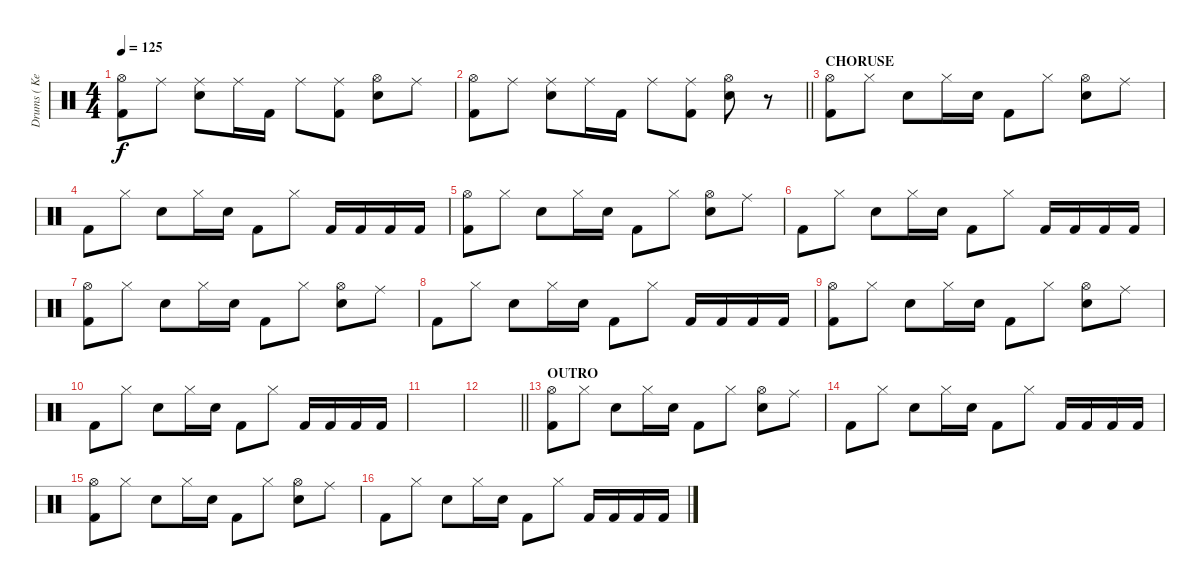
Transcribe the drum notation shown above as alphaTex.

\track ("Drums ( Ken Jay )" "Drums ( Ke") {instrument percussion}
\staff {score}
\articulation defaults
\ts (4 4)
\tempo 125
\clef neutral
\ks c
("Hi-Hat (open)" "Kick (hit) 2").8{dy f} "Ride (middle)".8 ("Ride (middle)" "Snare (hit) 2").8 "Ride (middle)".16 "Kick (hit) 2".16 "Ride (middle)".8 ("Ride (middle)" "Kick (hit) 2").8 ("Hi-Hat (open)" "Snare (hit) 2").8 "Ride (middle)".8 |
\barLineRight lightlight
("Hi-Hat (open)" "Kick (hit) 2").8 "Ride (middle)".8 ("Ride (middle)" "Snare (hit) 2").8 "Ride (middle)".16 "Kick (hit) 2".16 "Ride (middle)".8 ("Ride (middle)" "Kick (hit) 2").8 ("Hi-Hat (open)" "Snare (hit) 2").8 r.8 |
\section ("" "CHORUSE")
("Hi-Hat (open)" "Kick (hit) 2").8 "Hi-Hat (closed)".8 "Snare (hit) 2".8 "Hi-Hat (closed)".16 "Snare (hit) 2".16 "Kick (hit) 2".8 "Hi-Hat (closed)".8 ("Hi-Hat (open)" "Snare (hit) 2").8 "Ride (middle)".8 |
"Kick (hit) 2".8 "Hi-Hat (closed)".8 "Snare (hit) 2".8 "Hi-Hat (closed)".16 "Snare (hit) 2".16 "Kick (hit) 2".8 "Hi-Hat (closed)".8 "Kick (hit) 2".16 "Kick (hit) 2".16 "Kick (hit) 2".16 "Kick (hit) 2".16 |
("Hi-Hat (open)" "Kick (hit) 2").8 "Hi-Hat (closed)".8 "Snare (hit) 2".8 "Hi-Hat (closed)".16 "Snare (hit) 2".16 "Kick (hit) 2".8 "Hi-Hat (closed)".8 ("Hi-Hat (open)" "Snare (hit) 2").8 "Ride (middle)".8 |
"Kick (hit) 2".8 "Hi-Hat (closed)".8 "Snare (hit) 2".8 "Hi-Hat (closed)".16 "Snare (hit) 2".16 "Kick (hit) 2".8 "Hi-Hat (closed)".8 "Kick (hit) 2".16 "Kick (hit) 2".16 "Kick (hit) 2".16 "Kick (hit) 2".16 |
("Hi-Hat (open)" "Kick (hit) 2").8 "Hi-Hat (closed)".8 "Snare (hit) 2".8 "Hi-Hat (closed)".16 "Snare (hit) 2".16 "Kick (hit) 2".8 "Hi-Hat (closed)".8 ("Hi-Hat (open)" "Snare (hit) 2").8 "Ride (middle)".8 |
"Kick (hit) 2".8 "Hi-Hat (closed)".8 "Snare (hit) 2".8 "Hi-Hat (closed)".16 "Snare (hit) 2".16 "Kick (hit) 2".8 "Hi-Hat (closed)".8 "Kick (hit) 2".16 "Kick (hit) 2".16 "Kick (hit) 2".16 "Kick (hit) 2".16 |
("Hi-Hat (open)" "Kick (hit) 2").8 "Hi-Hat (closed)".8 "Snare (hit) 2".8 "Hi-Hat (closed)".16 "Snare (hit) 2".16 "Kick (hit) 2".8 "Hi-Hat (closed)".8 ("Hi-Hat (open)" "Snare (hit) 2").8 "Ride (middle)".8 |
"Kick (hit) 2".8 "Hi-Hat (closed)".8 "Snare (hit) 2".8 "Hi-Hat (closed)".16 "Snare (hit) 2".16 "Kick (hit) 2".8 "Hi-Hat (closed)".8 "Kick (hit) 2".16 "Kick (hit) 2".16 "Kick (hit) 2".16 "Kick (hit) 2".16 |
|
\barLineRight lightlight
|
\section ("" "OUTRO")
("Hi-Hat (open)" "Kick (hit) 2").8 "Hi-Hat (closed)".8 "Snare (hit) 2".8 "Hi-Hat (closed)".16 "Snare (hit) 2".16 "Kick (hit) 2".8 "Hi-Hat (closed)".8 ("Hi-Hat (open)" "Snare (hit) 2").8 "Ride (middle)".8 |
"Kick (hit) 2".8 "Hi-Hat (closed)".8 "Snare (hit) 2".8 "Hi-Hat (closed)".16 "Snare (hit) 2".16 "Kick (hit) 2".8 "Hi-Hat (closed)".8 "Kick (hit) 2".16 "Kick (hit) 2".16 "Kick (hit) 2".16 "Kick (hit) 2".16 |
("Hi-Hat (open)" "Kick (hit) 2").8 "Hi-Hat (closed)".8 "Snare (hit) 2".8 "Hi-Hat (closed)".16 "Snare (hit) 2".16 "Kick (hit) 2".8 "Hi-Hat (closed)".8 ("Hi-Hat (open)" "Snare (hit) 2").8 "Ride (middle)".8 |
"Kick (hit) 2".8 "Hi-Hat (closed)".8 "Snare (hit) 2".8 "Hi-Hat (closed)".16 "Snare (hit) 2".16 "Kick (hit) 2".8 "Hi-Hat (closed)".8 "Kick (hit) 2".16 "Kick (hit) 2".16 "Kick (hit) 2".16 "Kick (hit) 2".16
